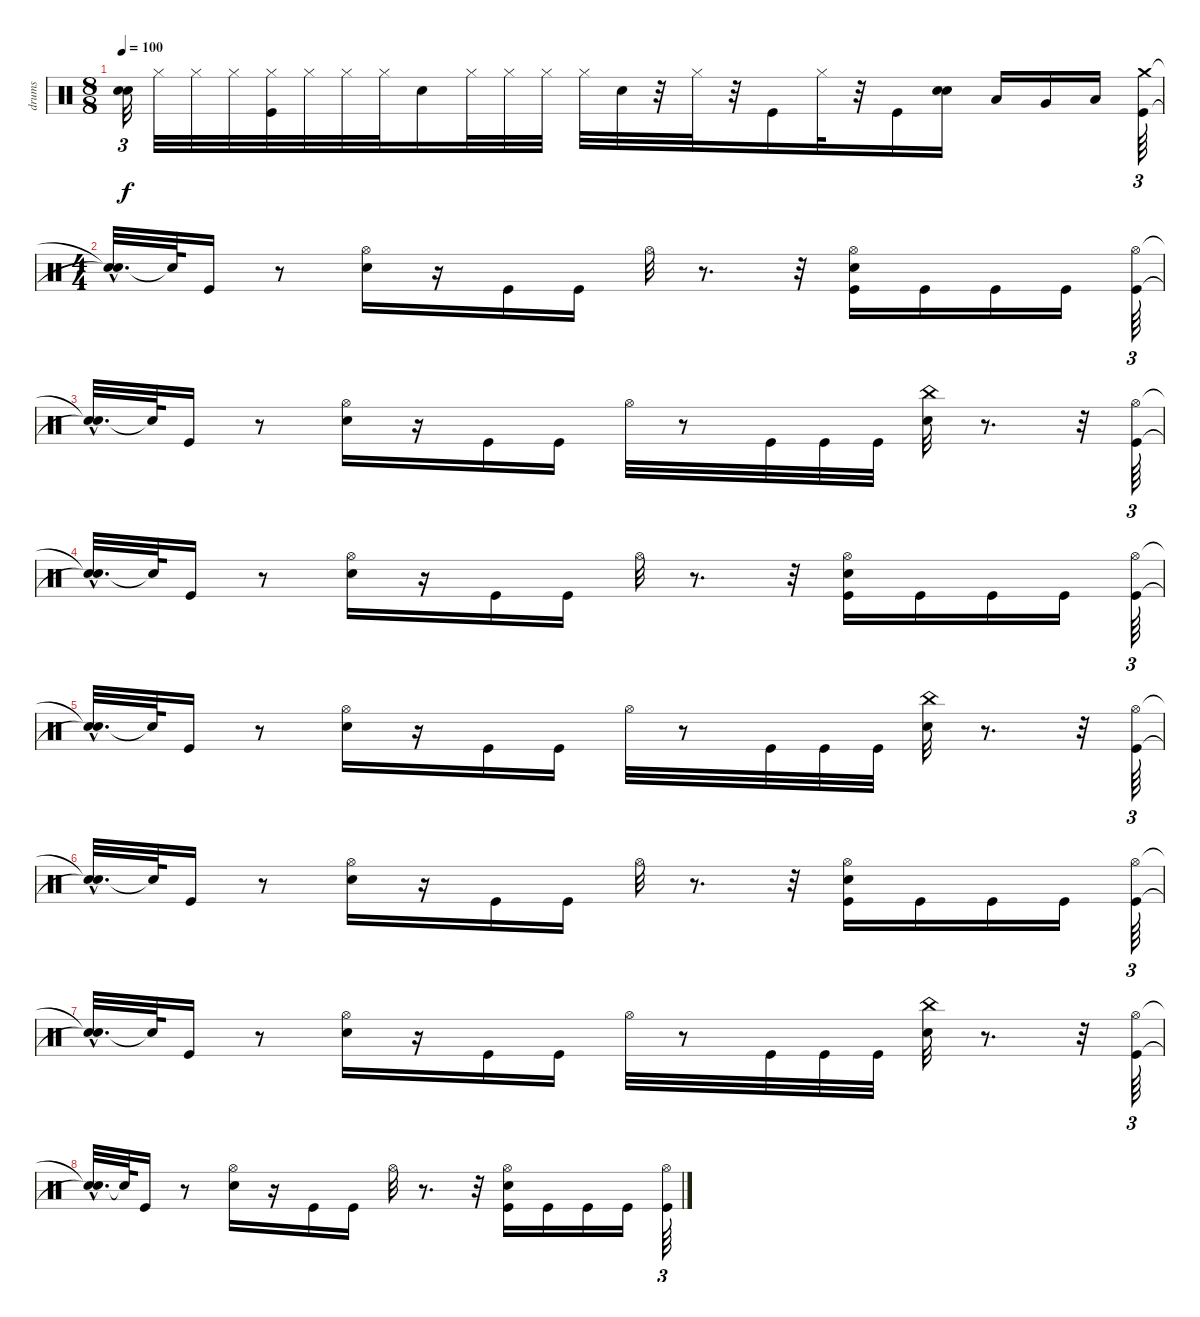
\track ("drums" "drums") {instrument percussion}
\staff {score}
\articulation defaults
\ts (8 8)
\tempo 100
\clef neutral
\ks c
("Snare (hit)"{t} "Snare (hit)"{t}).32{tu (3 2) dy f} "Hi-Hat (closed)".32 "Hi-Hat (closed)".32 "Hi-Hat (closed)".32 ("Hi-Hat (closed)" "Kick (hit)").32 "Hi-Hat (closed)".32 "Hi-Hat (closed)".32 "Hi-Hat (closed)".32 "Electric Snare (hit)".16 "Hi-Hat (closed)".32 "Hi-Hat (closed)".32 "Hi-Hat (closed)".32 "Hi-Hat (closed)".32 "Electric Snare (hit)".32 r.32 "Hi-Hat (closed)".32 r.32 "Kick (hit)".16 "Hi-Hat (closed)".32 r.32 "Kick (hit)".16 ("Electric Snare (hit)" "Electric Snare (hit)").16 "Low Tom (hit)".16 "Very Low Tom (hit)".16 "Low Floor Tom (hit)".16 ("Kick (hit)" "Crash medium (hit)").64{tu (3 2)} |
\ts (4 4)
("Snare (hit)"{hac t} "Snare (hit)"{t}).32{d} "Snare (hit)"{t}.64 "Kick (hit)".16 r.8 ("Electric Snare (hit)" "Hi-Hat (open)").16 r.16 "Kick (hit)".16 "Kick (hit)".16 "Hi-Hat (open)".32 r.8{d} r.32 ("Kick (hit)" "Hi-Hat (open)" "Electric Snare (hit)").16 "Kick (hit)".16 "Kick (hit)".16 "Kick (hit)".16 ("Kick (hit)" "Hi-Hat (open)").64{tu (3 2)} |
("Snare (hit)"{hac t} "Snare (hit)"{t}).32{d} "Snare (hit)"{t}.64 "Kick (hit)".16 r.8 ("Electric Snare (hit)" "Hi-Hat (open)").16 r.16 "Kick (hit)".16 "Kick (hit)".16 "Hi-Hat (open)".32 r.8 "Kick (hit)".32 "Kick (hit)".32 "Kick (hit)".32 ("China (hit)" "Electric Snare (hit)").32 r.8{d} r.32 ("Kick (hit)" "Hi-Hat (open)").64{tu (3 2)} |
("Snare (hit)"{hac t} "Snare (hit)"{t}).32{d} "Snare (hit)"{t}.64 "Kick (hit)".16 r.8 ("Hi-Hat (open)" "Electric Snare (hit)").16 r.16 "Kick (hit)".16 "Kick (hit)".16 "Hi-Hat (open)".32 r.8{d} r.32 ("Kick (hit)" "Hi-Hat (open)" "Electric Snare (hit)").16 "Kick (hit)".16 "Kick (hit)".16 "Kick (hit)".16 ("Kick (hit)" "Hi-Hat (open)").64{tu (3 2)} |
("Snare (hit)"{hac t} "Snare (hit)"{t}).32{d} "Snare (hit)"{t}.64 "Kick (hit)".16 r.8 ("Hi-Hat (open)" "Electric Snare (hit)").16 r.16 "Kick (hit)".16 "Kick (hit)".16 "Hi-Hat (open)".32 r.8 "Kick (hit)".32 "Kick (hit)".32 "Kick (hit)".32 ("China (hit)" "Electric Snare (hit)").32 r.8{d} r.32 ("Kick (hit)" "Hi-Hat (open)").64{tu (3 2)} |
("Snare (hit)"{hac t} "Snare (hit)"{t}).32{d} "Snare (hit)"{t}.64 "Kick (hit)".16 r.8 ("Electric Snare (hit)" "Hi-Hat (open)").16 r.16 "Kick (hit)".16 "Kick (hit)".16 "Hi-Hat (open)".32 r.8{d} r.32 ("Kick (hit)" "Hi-Hat (open)" "Electric Snare (hit)").16 "Kick (hit)".16 "Kick (hit)".16 "Kick (hit)".16 ("Kick (hit)" "Hi-Hat (open)").64{tu (3 2)} |
("Snare (hit)"{hac t} "Snare (hit)"{t}).32{d} "Snare (hit)"{t}.64 "Kick (hit)".16 r.8 ("Electric Snare (hit)" "Hi-Hat (open)").16 r.16 "Kick (hit)".16 "Kick (hit)".16 "Hi-Hat (open)".32 r.8 "Kick (hit)".32 "Kick (hit)".32 "Kick (hit)".32 ("China (hit)" "Electric Snare (hit)").32 r.8{d} r.32 ("Kick (hit)" "Hi-Hat (open)").64{tu (3 2)} |
("Snare (hit)"{hac t} "Snare (hit)"{t}).32{d} "Snare (hit)"{t}.64 "Kick (hit)".16 r.8 ("Hi-Hat (open)" "Electric Snare (hit)").16 r.16 "Kick (hit)".16 "Kick (hit)".16 "Hi-Hat (open)".32 r.8{d} r.32 ("Kick (hit)" "Hi-Hat (open)" "Electric Snare (hit)").16 "Kick (hit)".16 "Kick (hit)".16 "Kick (hit)".16 ("Kick (hit)" "Hi-Hat (open)").64{tu (3 2)}
